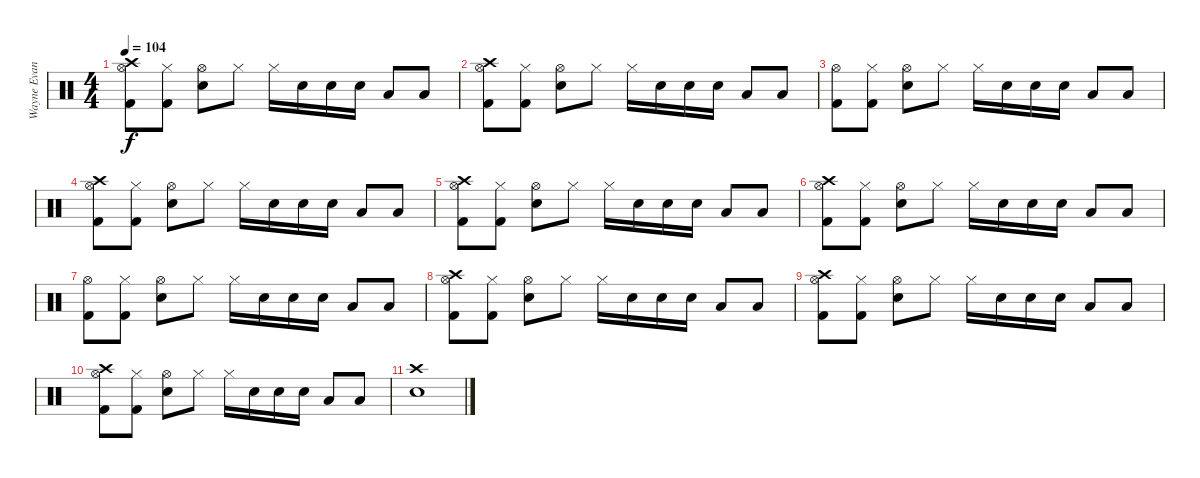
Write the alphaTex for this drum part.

\track ("Wayne Evans " "Wayne Evan") {instrument percussion}
\staff {score}
\articulation defaults
\ts (4 4)
\tempo 104
\clef neutral
\ks c
("Crash high (hit)" "Hi-Hat (open)" "Kick (hit) 2").8{dy f} ("Hi-Hat (closed)" "Kick (hit) 2").8 ("Hi-Hat (open)" "Electric Snare (hit)").8 "Hi-Hat (closed)".8 "Hi-Hat (closed)".16 "Electric Snare (hit)".16 "Electric Snare (hit)".16 "Electric Snare (hit)".16 "Low Tom (hit)".8 "Low Tom (hit)".8 |
("Crash high (hit)" "Hi-Hat (open)" "Kick (hit) 2").8 ("Hi-Hat (closed)" "Kick (hit) 2").8 ("Hi-Hat (open)" "Electric Snare (hit)").8 "Hi-Hat (closed)".8 "Hi-Hat (closed)".16 "Electric Snare (hit)".16 "Electric Snare (hit)".16 "Electric Snare (hit)".16 "Low Tom (hit)".8 "Low Tom (hit)".8 |
("Hi-Hat (open)" "Kick (hit) 2").8 ("Hi-Hat (closed)" "Kick (hit) 2").8 ("Hi-Hat (open)" "Electric Snare (hit)").8 "Hi-Hat (closed)".8 "Hi-Hat (closed)".16 "Electric Snare (hit)".16 "Electric Snare (hit)".16 "Electric Snare (hit)".16 "Low Tom (hit)".8 "Low Tom (hit)".8 |
("Crash high (hit)" "Hi-Hat (open)" "Kick (hit) 2").8 ("Hi-Hat (closed)" "Kick (hit) 2").8 ("Hi-Hat (open)" "Electric Snare (hit)").8 "Hi-Hat (closed)".8 "Hi-Hat (closed)".16 "Electric Snare (hit)".16 "Electric Snare (hit)".16 "Electric Snare (hit)".16 "Low Tom (hit)".8 "Low Tom (hit)".8 |
("Crash high (hit)" "Hi-Hat (open)" "Kick (hit) 2").8 ("Hi-Hat (closed)" "Kick (hit) 2").8 ("Hi-Hat (open)" "Electric Snare (hit)").8 "Hi-Hat (closed)".8 "Hi-Hat (closed)".16 "Electric Snare (hit)".16 "Electric Snare (hit)".16 "Electric Snare (hit)".16 "Low Tom (hit)".8 "Low Tom (hit)".8 |
("Crash high (hit)" "Hi-Hat (open)" "Kick (hit) 2").8 ("Hi-Hat (closed)" "Kick (hit) 2").8 ("Hi-Hat (open)" "Electric Snare (hit)").8 "Hi-Hat (closed)".8 "Hi-Hat (closed)".16 "Electric Snare (hit)".16 "Electric Snare (hit)".16 "Electric Snare (hit)".16 "Low Tom (hit)".8 "Low Tom (hit)".8 |
("Hi-Hat (open)" "Kick (hit) 2").8 ("Hi-Hat (closed)" "Kick (hit) 2").8 ("Hi-Hat (open)" "Electric Snare (hit)").8 "Hi-Hat (closed)".8 "Hi-Hat (closed)".16 "Electric Snare (hit)".16 "Electric Snare (hit)".16 "Electric Snare (hit)".16 "Low Tom (hit)".8 "Low Tom (hit)".8 |
("Crash high (hit)" "Hi-Hat (open)" "Kick (hit) 2").8 ("Hi-Hat (closed)" "Kick (hit) 2").8 ("Hi-Hat (open)" "Electric Snare (hit)").8 "Hi-Hat (closed)".8 "Hi-Hat (closed)".16 "Electric Snare (hit)".16 "Electric Snare (hit)".16 "Electric Snare (hit)".16 "Low Tom (hit)".8 "Low Tom (hit)".8 |
("Crash high (hit)" "Hi-Hat (open)" "Kick (hit) 2").8 ("Hi-Hat (closed)" "Kick (hit) 2").8 ("Hi-Hat (open)" "Electric Snare (hit)").8 "Hi-Hat (closed)".8 "Hi-Hat (closed)".16 "Electric Snare (hit)".16 "Electric Snare (hit)".16 "Electric Snare (hit)".16 "Low Tom (hit)".8 "Low Tom (hit)".8 |
("Crash high (hit)" "Hi-Hat (open)" "Kick (hit) 2").8 ("Hi-Hat (closed)" "Kick (hit) 2").8 ("Hi-Hat (open)" "Electric Snare (hit)").8 "Hi-Hat (closed)".8 "Hi-Hat (closed)".16 "Electric Snare (hit)".16 "Electric Snare (hit)".16 "Electric Snare (hit)".16 "Low Tom (hit)".8 "Low Tom (hit)".8 |
("Crash high (hit)" "Electric Snare (hit)").1
